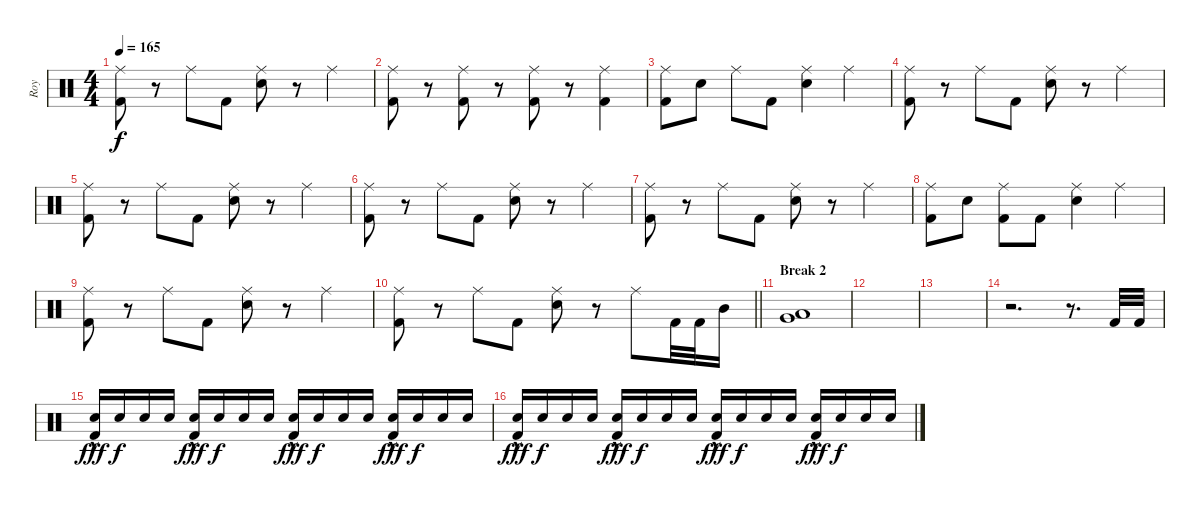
\track ("Roy" "Roy") {instrument percussion}
\staff {score}
\articulation defaults
\ts (4 4)
\tempo 165
\clef neutral
\ks c
("Ride (middle)" "Kick (hit) 2").8{dy f} r.8 "Ride (middle)".8 "Kick (hit) 2".8 ("Ride (middle)" "Electric Snare (hit)").8 r.8 "Ride (middle)".4 |
("Ride (middle)" "Kick (hit) 2").8 r.8 ("Ride (middle)" "Kick (hit) 2").8 r.8 ("Ride (middle)" "Kick (hit) 2").8 r.8 ("Ride (middle)" "Kick (hit) 2").4 |
("Ride (middle)" "Kick (hit) 2").8 "Electric Snare (hit)".8 "Ride (middle)".8 "Kick (hit) 2".8 ("Ride (middle)" "Electric Snare (hit)").4 "Ride (middle)".4 |
("Ride (middle)" "Kick (hit) 2").8 r.8 "Ride (middle)".8 "Kick (hit) 2".8 ("Ride (middle)" "Electric Snare (hit)").8 r.8 "Ride (middle)".4 |
("Ride (middle)" "Kick (hit) 2").8 r.8 "Ride (middle)".8 "Kick (hit) 2".8 ("Ride (middle)" "Electric Snare (hit)").8 r.8 "Ride (middle)".4 |
("Ride (middle)" "Kick (hit) 2").8 r.8 "Ride (middle)".8 "Kick (hit) 2".8 ("Ride (middle)" "Electric Snare (hit)").8 r.8 "Ride (middle)".4 |
("Ride (middle)" "Kick (hit) 2").8 r.8 "Ride (middle)".8 "Kick (hit) 2".8 ("Ride (middle)" "Electric Snare (hit)").8 r.8 "Ride (middle)".4 |
("Ride (middle)" "Kick (hit) 2").8 "Electric Snare (hit)".8 ("Ride (middle)" "Kick (hit) 2").8 "Kick (hit) 2".8 ("Ride (middle)" "Electric Snare (hit)").4 "Ride (middle)".4 |
("Ride (middle)" "Kick (hit) 2").8 r.8 "Ride (middle)".8 "Kick (hit) 2".8 ("Ride (middle)" "Electric Snare (hit)").8 r.8 "Ride (middle)".4 |
\barLineRight lightlight
("Ride (middle)" "Kick (hit) 2").8 r.8 "Ride (middle)".8 "Kick (hit) 2".8 ("Ride (middle)" "Electric Snare (hit)").8 r.8 "Ride (middle)".8 "Kick (hit) 2".32 "Kick (hit) 2".32 "Mid Tom (hit)".16 |
\section ("" "Break 2")
("Very Low Tom (hit)" "Low Tom (hit)").1 |
|
|
r.2{d} r.8{d} "Kick (hit) 2".32 "Kick (hit) 2".32 |
("Electric Snare (hit)"{hac} "Kick (hit) 2").16{dy fff volume 4} "Electric Snare (hit)".16{dy f} "Electric Snare (hit)".16 "Electric Snare (hit)".16 ("Electric Snare (hit)"{hac} "Kick (hit) 2").16{dy fff} "Electric Snare (hit)".16{dy f} "Electric Snare (hit)".16 "Electric Snare (hit)".16 ("Electric Snare (hit)"{hac} "Kick (hit) 2").16{dy fff volume 10} "Electric Snare (hit)".16{dy f} "Electric Snare (hit)".16 "Electric Snare (hit)".16 ("Electric Snare (hit)"{hac} "Kick (hit) 2").16{dy fff} "Electric Snare (hit)".16{dy f} "Electric Snare (hit)".16 "Electric Snare (hit)".16 |
("Electric Snare (hit)"{hac} "Kick (hit) 2").16{dy fff} "Electric Snare (hit)".16{dy f} "Electric Snare (hit)".16 "Electric Snare (hit)".16 ("Electric Snare (hit)"{hac} "Kick (hit) 2").16{dy fff} "Electric Snare (hit)".16{dy f} "Electric Snare (hit)".16 "Electric Snare (hit)".16 ("Electric Snare (hit)"{hac} "Kick (hit) 2").16{dy fff} "Electric Snare (hit)".16{dy f} "Electric Snare (hit)".16 "Electric Snare (hit)".16 ("Electric Snare (hit)"{hac} "Kick (hit) 2").16{dy fff} "Electric Snare (hit)".16{dy f} "Electric Snare (hit)".16 "Electric Snare (hit)".16
